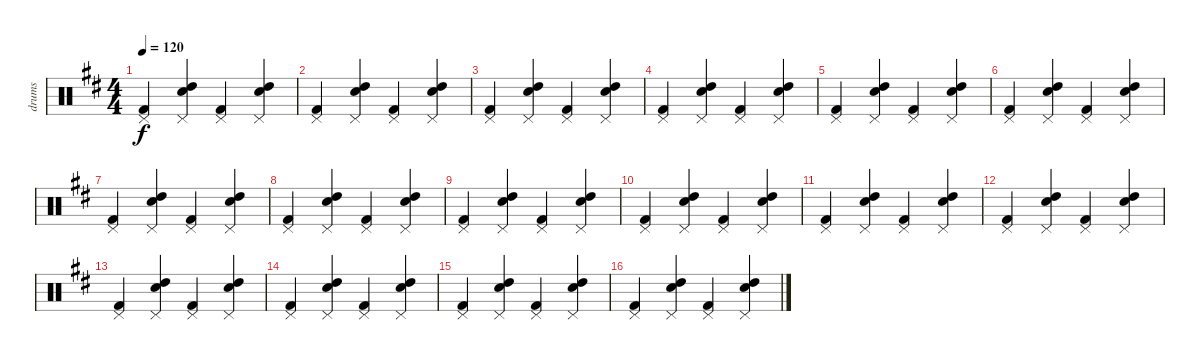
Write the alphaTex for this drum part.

\track ("drums" "drums") {instrument percussion}
\staff {score}
\articulation defaults
\ts (4 4)
\tempo 120
\clef neutral
\ks d
("Pedal Hi-Hat (hit)" "Kick (hit) 2").4{dy f} ("Pedal Hi-Hat (hit)" "High Tom (hit)" "Electric Snare (hit)").4 ("Kick (hit) 2" "Pedal Hi-Hat (hit)").4 ("Pedal Hi-Hat (hit)" "High Tom (hit)" "Electric Snare (hit)").4 |
("Pedal Hi-Hat (hit)" "Kick (hit) 2").4 ("Pedal Hi-Hat (hit)" "High Tom (hit)" "Electric Snare (hit)").4 ("Kick (hit) 2" "Pedal Hi-Hat (hit)").4 ("Pedal Hi-Hat (hit)" "High Tom (hit)" "Electric Snare (hit)").4 |
("Pedal Hi-Hat (hit)" "Kick (hit) 2").4 ("Pedal Hi-Hat (hit)" "High Tom (hit)" "Electric Snare (hit)").4 ("Kick (hit) 2" "Pedal Hi-Hat (hit)").4 ("Pedal Hi-Hat (hit)" "High Tom (hit)" "Electric Snare (hit)").4 |
("Pedal Hi-Hat (hit)" "Kick (hit) 2").4 ("Pedal Hi-Hat (hit)" "High Tom (hit)" "Electric Snare (hit)").4 ("Kick (hit) 2" "Pedal Hi-Hat (hit)").4 ("Pedal Hi-Hat (hit)" "High Tom (hit)" "Electric Snare (hit)").4 |
("Pedal Hi-Hat (hit)" "Kick (hit) 2").4 ("Pedal Hi-Hat (hit)" "High Tom (hit)" "Electric Snare (hit)").4 ("Kick (hit) 2" "Pedal Hi-Hat (hit)").4 ("Pedal Hi-Hat (hit)" "High Tom (hit)" "Electric Snare (hit)").4 |
("Pedal Hi-Hat (hit)" "Kick (hit) 2").4 ("Pedal Hi-Hat (hit)" "High Tom (hit)" "Electric Snare (hit)").4 ("Kick (hit) 2" "Pedal Hi-Hat (hit)").4 ("Pedal Hi-Hat (hit)" "High Tom (hit)" "Electric Snare (hit)").4 |
("Pedal Hi-Hat (hit)" "Kick (hit) 2").4 ("Pedal Hi-Hat (hit)" "High Tom (hit)" "Electric Snare (hit)").4 ("Kick (hit) 2" "Pedal Hi-Hat (hit)").4 ("Pedal Hi-Hat (hit)" "High Tom (hit)" "Electric Snare (hit)").4 |
("Pedal Hi-Hat (hit)" "Kick (hit) 2").4 ("Pedal Hi-Hat (hit)" "High Tom (hit)" "Electric Snare (hit)").4 ("Kick (hit) 2" "Pedal Hi-Hat (hit)").4 ("Pedal Hi-Hat (hit)" "High Tom (hit)" "Electric Snare (hit)").4 |
("Pedal Hi-Hat (hit)" "Kick (hit) 2").4 ("Pedal Hi-Hat (hit)" "High Tom (hit)" "Electric Snare (hit)").4 ("Kick (hit) 2" "Pedal Hi-Hat (hit)").4 ("Pedal Hi-Hat (hit)" "High Tom (hit)" "Electric Snare (hit)").4 |
("Pedal Hi-Hat (hit)" "Kick (hit) 2").4 ("Pedal Hi-Hat (hit)" "High Tom (hit)" "Electric Snare (hit)").4 ("Kick (hit) 2" "Pedal Hi-Hat (hit)").4 ("Pedal Hi-Hat (hit)" "High Tom (hit)" "Electric Snare (hit)").4 |
("Pedal Hi-Hat (hit)" "Kick (hit) 2").4 ("Pedal Hi-Hat (hit)" "High Tom (hit)" "Electric Snare (hit)").4 ("Kick (hit) 2" "Pedal Hi-Hat (hit)").4 ("Pedal Hi-Hat (hit)" "High Tom (hit)" "Electric Snare (hit)").4 |
("Pedal Hi-Hat (hit)" "Kick (hit) 2").4 ("Pedal Hi-Hat (hit)" "High Tom (hit)" "Electric Snare (hit)").4 ("Kick (hit) 2" "Pedal Hi-Hat (hit)").4 ("Pedal Hi-Hat (hit)" "High Tom (hit)" "Electric Snare (hit)").4 |
("Pedal Hi-Hat (hit)" "Kick (hit) 2").4 ("Pedal Hi-Hat (hit)" "High Tom (hit)" "Electric Snare (hit)").4 ("Kick (hit) 2" "Pedal Hi-Hat (hit)").4 ("Pedal Hi-Hat (hit)" "High Tom (hit)" "Electric Snare (hit)").4 |
("Pedal Hi-Hat (hit)" "Kick (hit) 2").4 ("Pedal Hi-Hat (hit)" "High Tom (hit)" "Electric Snare (hit)").4 ("Kick (hit) 2" "Pedal Hi-Hat (hit)").4 ("Pedal Hi-Hat (hit)" "High Tom (hit)" "Electric Snare (hit)").4 |
("Pedal Hi-Hat (hit)" "Kick (hit) 2").4 ("Pedal Hi-Hat (hit)" "High Tom (hit)" "Electric Snare (hit)").4 ("Kick (hit) 2" "Pedal Hi-Hat (hit)").4 ("Pedal Hi-Hat (hit)" "High Tom (hit)" "Electric Snare (hit)").4 |
("Pedal Hi-Hat (hit)" "Kick (hit) 2").4 ("Pedal Hi-Hat (hit)" "High Tom (hit)" "Electric Snare (hit)").4 ("Kick (hit) 2" "Pedal Hi-Hat (hit)").4 ("Pedal Hi-Hat (hit)" "High Tom (hit)" "Electric Snare (hit)").4
